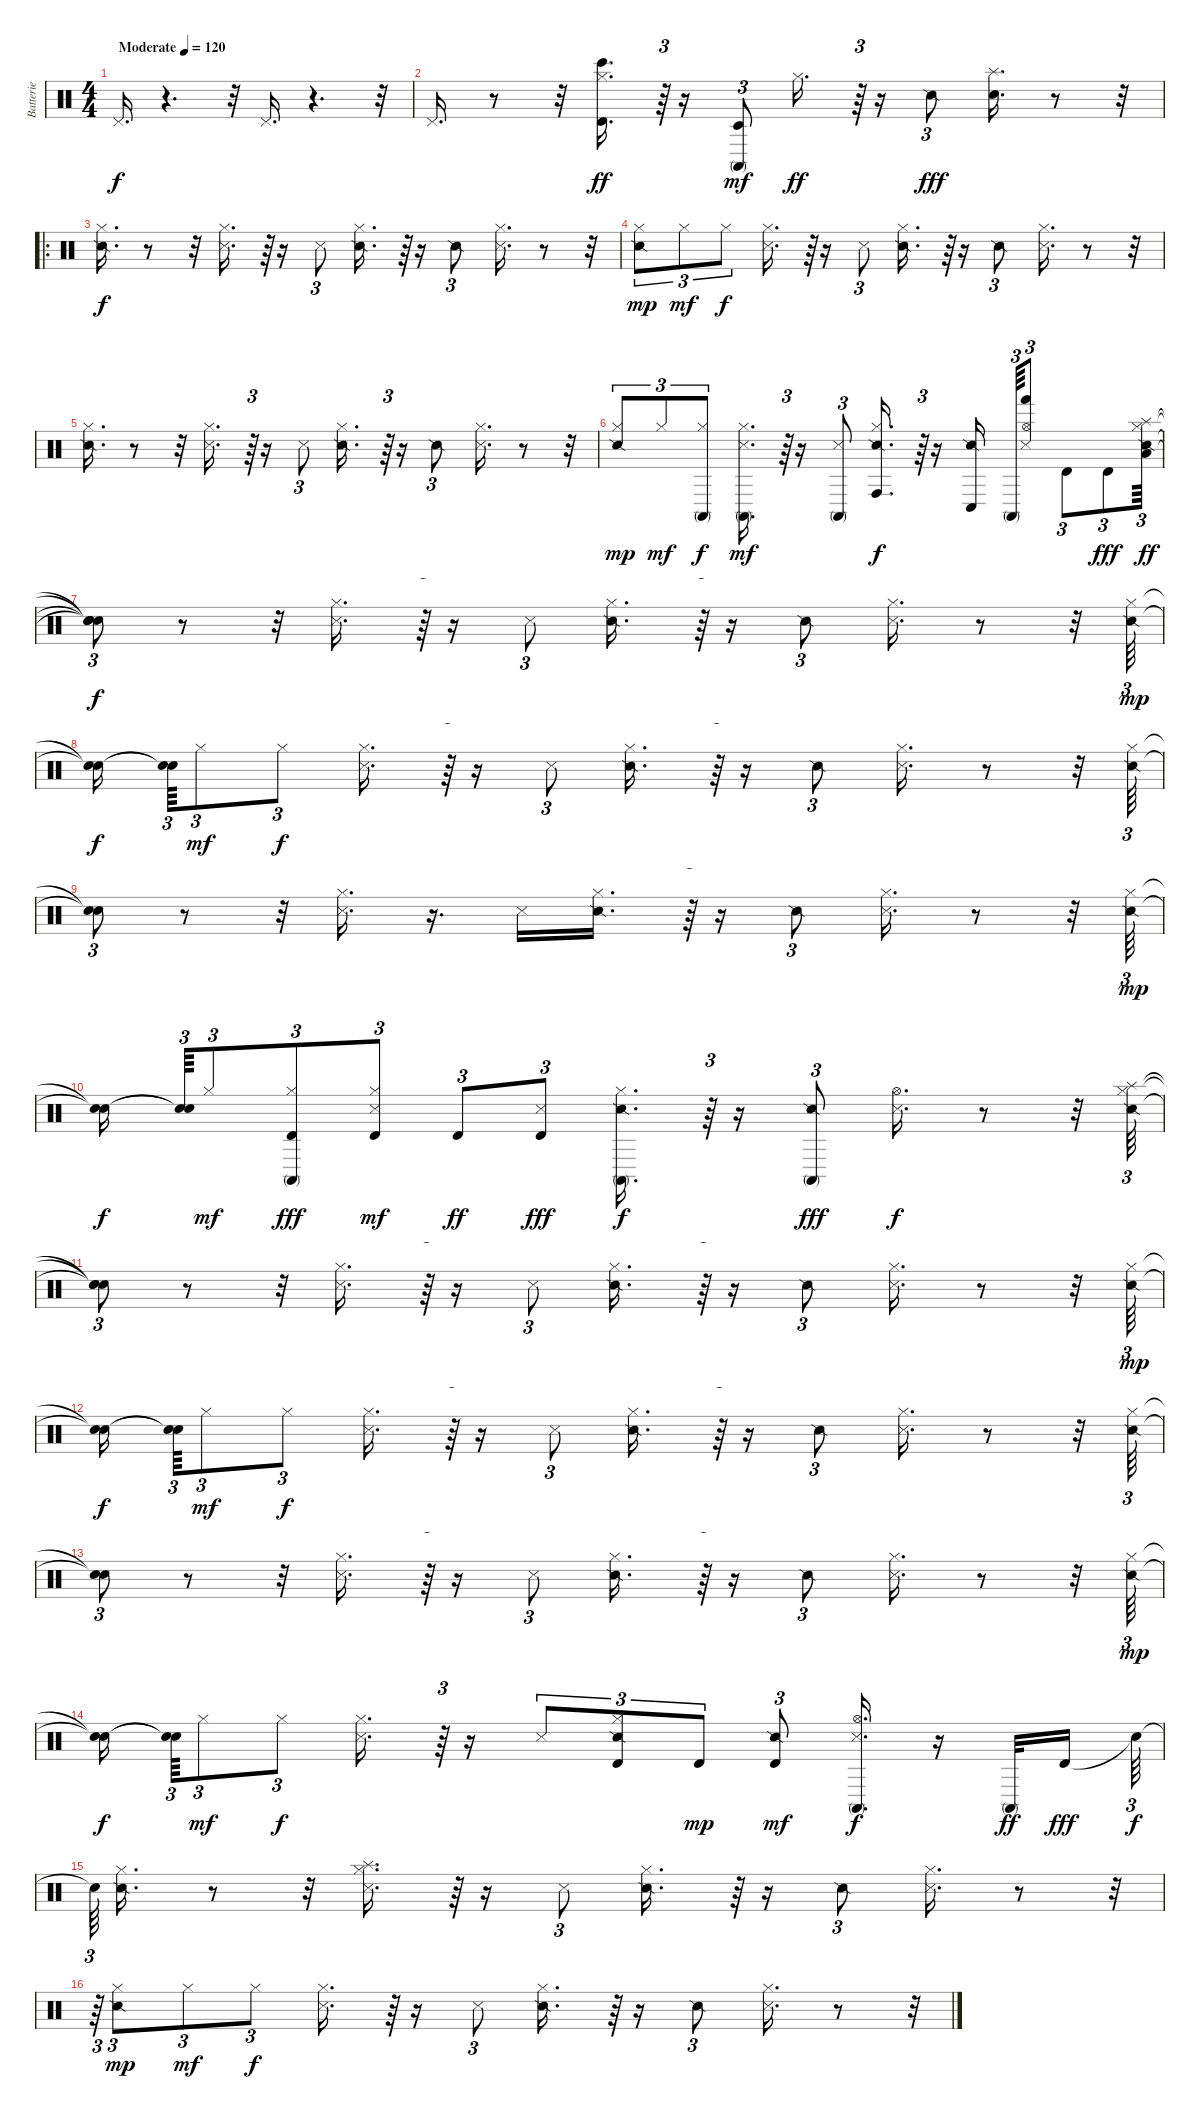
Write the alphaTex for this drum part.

\track ("Batterie" "Batterie") {instrument percussion}
\staff {score}
\articulation defaults
\ts (4 4)
\tempo (120 "Moderate")
\clef neutral
\ks c "Pedal Hi-Hat (hit)".16{d dy f}
r.4{d} r.32 "Pedal Hi-Hat (hit)".16{d} r.4{d} r.32 |
"Pedal Hi-Hat (hit)".16{d} r.8 r.32 ("Bongo High (hit)" "Timbale high (hit)" "Hi-Hat (closed)").16{d dy ff} r.64{tu (3 2)} r.16 ("Timbale low (hit)" "Conga high (mute)").8{tu (3 2) dy mf} "Hi-Hat (closed)".16{d dy ff} r.64{tu (3 2)} r.16 "Snare (side stick) 2".8{tu (3 2) dy fff} ("Hand Clap (hit)" "Splash (hit)").16{d} r.8 r.32 |
\ro
("Snare (side stick) 2" "Hi-Hat (closed)").16{d dy f} r.8 r.32 ("Metronome (hit)" "Hi-Hat (closed)").16{d} r.64{tu (3 2)} r.16 "Snare (side stick) 3".8{tu (3 2)} ("Snare (side stick) 2" "Hi-Hat (closed)").16{d} r.64{tu (3 2)} r.16 "Snare (side stick) 2".8{tu (3 2)} ("Snare (side stick) 3" "Hi-Hat (closed)").16{d} r.8 r.32 |
("Hi-Hat (closed)" "Snare (side stick) 2").8{tu (3 2) dy mp} "Hi-Hat (closed)".8{tu (3 2) dy mf} "Hi-Hat (closed)".8{tu (3 2) dy f} ("Metronome (hit)" "Hi-Hat (closed)").16{d} r.64{tu (3 2)} r.16 "Snare (side stick) 3".8{tu (3 2)} ("Snare (side stick) 2" "Hi-Hat (closed)").16{d} r.64{tu (3 2)} r.16 "Snare (side stick) 2".8{tu (3 2)} ("Snare (side stick) 3" "Hi-Hat (closed)").16{d} r.8 r.32 |
("Snare (side stick) 2" "Hi-Hat (closed)").16{d} r.8 r.32 ("Metronome (hit)" "Hi-Hat (closed)").16{d} r.64{tu (3 2)} r.16 "Snare (side stick) 3".8{tu (3 2)} ("Snare (side stick) 2" "Hi-Hat (closed)").16{d} r.64{tu (3 2)} r.16 "Snare (side stick) 2".8{tu (3 2)} ("Snare (side stick) 3" "Hi-Hat (closed)").16{d} r.8 r.32 |
("Hi-Hat (closed)" "Snare (side stick) 2").8{tu (3 2) dy mp} "Hi-Hat (closed)".8{tu (3 2) dy mf} ("Hi-Hat (closed)" "Conga high (mute)").8{tu (3 2) dy f} ("Metronome (hit)" "Hi-Hat (closed)" "Conga high (mute)").16{d dy mf} r.64{tu (3 2)} r.16 ("Snare (side stick) 3" "Conga high (mute)").8{tu (3 2)} ("Snare (side stick) 2" "Hi-Hat (closed)" "Conga high (hit)").16{d dy f} r.64{tu (3 2)} r.16 ("Snare (side stick) 2" "Conga low (hit)").16{beam splitsecondary} "Conga high (mute)".64{tu (3 2)} ("Snare (side stick) 3" "Hi-Hat (open)" "Hand (hit)").8{tu (3 2)} "Timbale high (hit)".8{tu (3 2)} "Timbale high (hit)".8{tu (3 2) dy fff} ("Snare (side stick) 2" "Hi-Hat (closed)" "Splash (hit)" "Low Floor Tom (hit)").64{tu (3 2) dy ff} |
("Snare (hit)"{t} "Snare (hit)"{t} "Snare (hit)"{t} "Snare (hit)"{t}).8{tu (3 2) dy f} r.8 r.32 ("Metronome (hit)" "Hi-Hat (closed)").16{d} r.64{tu (3 2)} r.16 "Snare (side stick) 3".8{tu (3 2)} ("Snare (side stick) 2" "Hi-Hat (closed)").16{d} r.64{tu (3 2)} r.16 "Snare (side stick) 2".8{tu (3 2)} ("Snare (side stick) 3" "Hi-Hat (closed)").16{d} r.8 r.32 ("Hi-Hat (closed)" "Snare (side stick) 2").64{tu (3 2) dy mp} |
("Snare (hit)"{t} "Snare (hit)"{t}).16{dy f beam splitsecondary} ("Snare (hit)"{t} "Snare (hit)"{t}).64{tu (3 2)} "Hi-Hat (closed)".8{tu (3 2) dy mf} "Hi-Hat (closed)".8{tu (3 2) dy f} ("Metronome (hit)" "Hi-Hat (closed)").16{d} r.64{tu (3 2)} r.16 "Snare (side stick) 3".8{tu (3 2)} ("Snare (side stick) 2" "Hi-Hat (closed)").16{d} r.64{tu (3 2)} r.16 "Snare (side stick) 2".8{tu (3 2)} ("Snare (side stick) 3" "Hi-Hat (closed)").16{d} r.8 r.32 ("Snare (side stick) 2" "Hi-Hat (closed)").64{tu (3 2)} |
("Snare (hit)"{t} "Snare (hit)"{t}).8{tu (3 2)} r.8 r.32 ("Metronome (hit)" "Hi-Hat (closed)").16{d} r.16{d} "Snare (side stick) 3".16 ("Snare (side stick) 2" "Hi-Hat (closed)").16{d} r.64{tu (3 2)} r.16 "Snare (side stick) 2".8{tu (3 2)} ("Snare (side stick) 3" "Hi-Hat (closed)").16{d} r.8 r.32 ("Hi-Hat (closed)" "Snare (side stick) 2").64{tu (3 2) dy mp} |
("Snare (hit)"{t} "Snare (hit)"{t}).16{dy f beam splitsecondary} ("Snare (hit)"{t} "Snare (hit)"{t}).64{tu (3 2)} "Hi-Hat (closed)".8{tu (3 2) dy mf} ("Hi-Hat (closed)" "Timbale high (hit)" "Conga high (mute)").8{tu (3 2) dy fff} ("Metronome (hit)" "Hi-Hat (closed)" "Timbale high (hit)").8{tu (3 2) dy mf} "Timbale high (hit)".8{tu (3 2) dy ff} ("Snare (side stick) 3" "Timbale high (hit)").8{tu (3 2) dy fff} ("Snare (side stick) 2" "Hi-Hat (closed)" "Conga high (mute)").16{d dy f} r.64{tu (3 2)} r.16 ("Snare (side stick) 2" "Conga high (mute)").8{tu (3 2) dy fff} ("Snare (side stick) 3" "Hi-Hat (open)").16{d dy f} r.8 r.32 ("Snare (side stick) 2" "Hi-Hat (closed)" "Splash (hit)").64{tu (3 2)} |
("Snare (hit)"{t} "Snare (hit)"{t} "Snare (hit)"{t}).8{tu (3 2)} r.8 r.32 ("Metronome (hit)" "Hi-Hat (closed)").16{d} r.64{tu (3 2)} r.16 "Snare (side stick) 3".8{tu (3 2)} ("Snare (side stick) 2" "Hi-Hat (closed)").16{d} r.64{tu (3 2)} r.16 "Snare (side stick) 2".8{tu (3 2)} ("Snare (side stick) 3" "Hi-Hat (closed)").16{d} r.8 r.32 ("Hi-Hat (closed)" "Snare (side stick) 2").64{tu (3 2) dy mp} |
("Snare (hit)"{t} "Snare (hit)"{t}).16{dy f beam splitsecondary} ("Snare (hit)"{t} "Snare (hit)"{t}).64{tu (3 2)} "Hi-Hat (closed)".8{tu (3 2) dy mf} "Hi-Hat (closed)".8{tu (3 2) dy f} ("Metronome (hit)" "Hi-Hat (closed)").16{d} r.64{tu (3 2)} r.16 "Snare (side stick) 3".8{tu (3 2)} ("Snare (side stick) 2" "Hi-Hat (closed)").16{d} r.64{tu (3 2)} r.16 "Snare (side stick) 2".8{tu (3 2)} ("Snare (side stick) 3" "Hi-Hat (closed)").16{d} r.8 r.32 ("Snare (side stick) 2" "Hi-Hat (closed)").64{tu (3 2)} |
("Snare (hit)"{t} "Snare (hit)"{t}).8{tu (3 2)} r.8 r.32 ("Metronome (hit)" "Hi-Hat (closed)").16{d} r.64{tu (3 2)} r.16 "Snare (side stick) 3".8{tu (3 2)} ("Snare (side stick) 2" "Hi-Hat (closed)").16{d} r.64{tu (3 2)} r.16 "Snare (side stick) 2".8{tu (3 2)} ("Snare (side stick) 3" "Hi-Hat (closed)").16{d} r.8 r.32 ("Hi-Hat (closed)" "Snare (side stick) 2").64{tu (3 2) dy mp} |
("Snare (hit)"{t} "Snare (hit)"{t}).16{dy f beam splitsecondary} ("Snare (hit)"{t} "Snare (hit)"{t}).64{tu (3 2)} "Hi-Hat (closed)".8{tu (3 2) dy mf} "Hi-Hat (closed)".8{tu (3 2) dy f} ("Metronome (hit)" "Hi-Hat (closed)").16{d} r.64{tu (3 2)} r.16 "Snare (side stick) 3".8{tu (3 2)} ("Snare (side stick) 2" "Hi-Hat (closed)" "Timbale high (hit)").8{tu (3 2)} "Timbale high (hit)".8{tu (3 2) dy mp} ("Snare (side stick) 2" "Timbale high (hit)").8{tu (3 2) dy mf} ("Snare (side stick) 3" "Hi-Hat (open)" "Conga high (mute)").16{d dy f} r.16 "Conga high (mute)".32{dy ff} "Timbale high (hit)".16{dy fff beam splitsecondary} "Snare (hit)"{t}.64{tu (3 2) dy f} |
"Snare (hit)"{t}.64{tu (3 2)} ("Snare (side stick) 2" "Hi-Hat (closed)").16{d} r.8 r.32 ("Metronome (hit)" "Hi-Hat (closed)" "Splash (hit)").16{d} r.64{tu (3 2)} r.16 "Snare (side stick) 3".8{tu (3 2)} ("Snare (side stick) 2" "Hi-Hat (closed)").16{d} r.64{tu (3 2)} r.16 "Snare (side stick) 2".8{tu (3 2)} ("Snare (side stick) 3" "Hi-Hat (closed)").16{d} r.8 r.32{tu (3 2)} |
r.64{tu (3 2)} ("Hi-Hat (closed)" "Snare (side stick) 2").8{tu (3 2) dy mp} "Hi-Hat (closed)".8{tu (3 2) dy mf} "Hi-Hat (closed)".8{tu (3 2) dy f} ("Metronome (hit)" "Hi-Hat (closed)").16{d} r.64{tu (3 2)} r.16 "Snare (side stick) 3".8{tu (3 2)} ("Snare (side stick) 2" "Hi-Hat (closed)").16{d} r.64{tu (3 2)} r.16 "Snare (side stick) 2".8{tu (3 2)} ("Snare (side stick) 3" "Hi-Hat (closed)").16{d} r.8 r.32{tu (3 2)}
